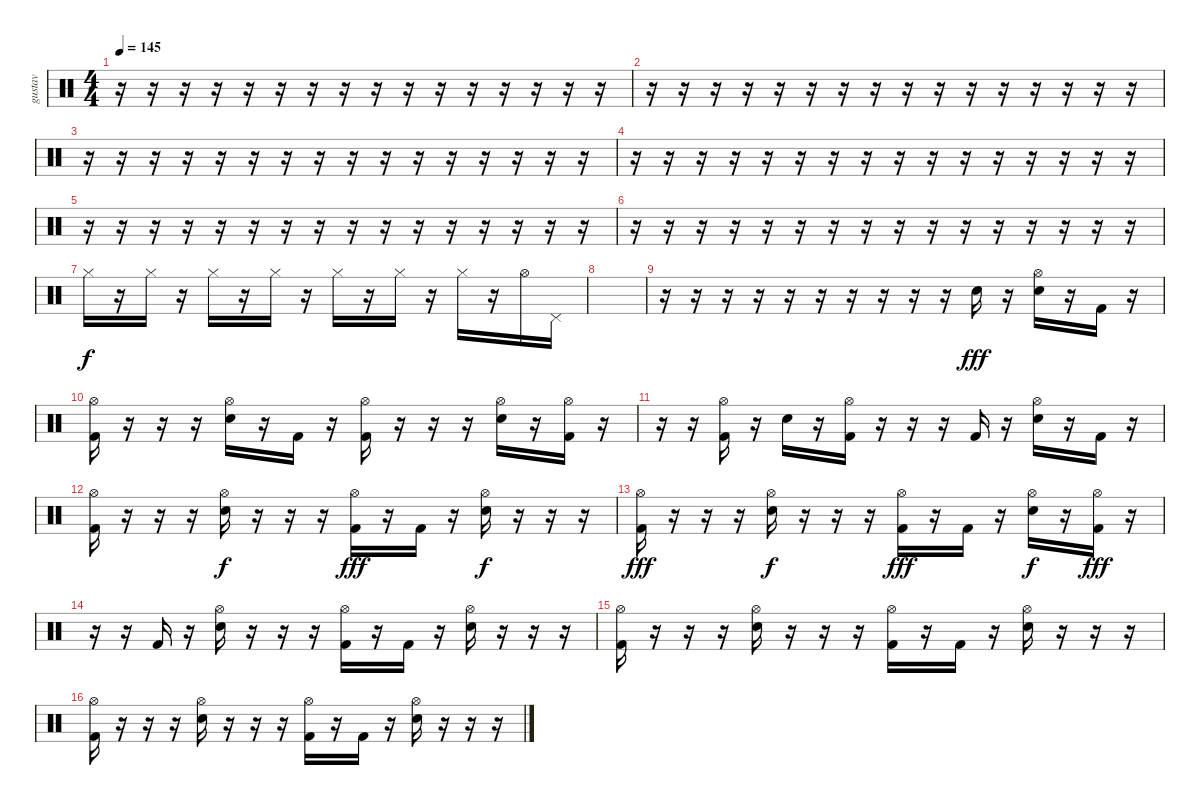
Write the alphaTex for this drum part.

\track ("gustav" "gustav") {instrument percussion}
\staff {score}
\articulation defaults
\ts (4 4)
\tempo 145
\clef neutral
\ks c
r.16{dy fff} r.16 r.16 r.16 r.16 r.16 r.16 r.16 r.16 r.16 r.16 r.16 r.16 r.16 r.16 r.16 |
r.16 r.16 r.16 r.16 r.16 r.16 r.16 r.16 r.16 r.16 r.16 r.16 r.16 r.16 r.16 r.16 |
r.16 r.16 r.16 r.16 r.16 r.16 r.16 r.16 r.16 r.16 r.16 r.16 r.16 r.16 r.16 r.16 |
r.16 r.16 r.16 r.16 r.16 r.16 r.16 r.16 r.16 r.16 r.16 r.16 r.16 r.16 r.16 r.16 |
r.16 r.16 r.16 r.16 r.16 r.16 r.16 r.16 r.16 r.16 r.16 r.16 r.16 r.16 r.16 r.16 |
r.16 r.16 r.16 r.16 r.16 r.16 r.16 r.16 r.16 r.16{volume 0} r.16 r.16 r.16 r.16 r.16{volume 16} r.16 |
"Hi-Hat (closed)".16{dy f} r.16 "Hi-Hat (closed)".16 r.16 "Hi-Hat (closed)".16 r.16 "Hi-Hat (closed)".16 r.16 "Hi-Hat (closed)".16 r.16 "Hi-Hat (closed)".16 r.16 "Hi-Hat (closed)".16 r.16 "Hi-Hat (open)".16 "Pedal Hi-Hat (hit)".16 |
|
r.16 r.16 r.16 r.16 r.16 r.16 r.16 r.16 r.16 r.16 "Electric Snare (hit)".16{dy fff volume 16} r.16 ("Hi-Hat (open)" "Electric Snare (hit)").16 r.16 "Kick (hit) 2".16 r.16 |
("Hi-Hat (open)" "Kick (hit) 2").16 r.16 r.16 r.16 ("Hi-Hat (open)" "Electric Snare (hit)").16 r.16 "Kick (hit) 2".16 r.16 ("Hi-Hat (open)" "Kick (hit) 2").16 r.16 r.16 r.16 ("Hi-Hat (open)" "Electric Snare (hit)").16 r.16 ("Hi-Hat (open)" "Kick (hit) 2").16 r.16 |
r.16 r.16 ("Hi-Hat (open)" "Kick (hit) 2").16 r.16 "Electric Snare (hit)".16 r.16 ("Hi-Hat (open)" "Kick (hit) 2").16 r.16 r.16 r.16 "Kick (hit) 2".16 r.16 ("Hi-Hat (open)" "Electric Snare (hit)").16 r.16 "Kick (hit) 2".16 r.16 |
("Hi-Hat (open)" "Kick (hit) 2").16 r.16 r.16 r.16 ("Hi-Hat (open)" "Electric Snare (hit)").16{dy f} r.16 r.16 r.16 ("Hi-Hat (open)" "Kick (hit) 2").16{dy fff} r.16 "Kick (hit) 2".16 r.16 ("Hi-Hat (open)" "Electric Snare (hit)").16{dy f} r.16 r.16 r.16 |
("Hi-Hat (open)" "Kick (hit) 2").16{dy fff} r.16 r.16 r.16 ("Hi-Hat (open)" "Electric Snare (hit)").16{dy f} r.16 r.16 r.16 ("Hi-Hat (open)" "Kick (hit) 2").16{dy fff} r.16 "Kick (hit) 2".16 r.16 ("Hi-Hat (open)" "Electric Snare (hit)").16{dy f} r.16 ("Hi-Hat (open)" "Kick (hit) 2").16{dy fff} r.16 |
r.16 r.16 "Kick (hit) 2".16 r.16 ("Hi-Hat (open)" "Electric Snare (hit)").16 r.16 r.16 r.16 ("Hi-Hat (open)" "Kick (hit) 2").16 r.16 "Kick (hit) 2".16 r.16 ("Hi-Hat (open)" "Electric Snare (hit)").16 r.16 r.16 r.16 |
("Hi-Hat (open)" "Kick (hit) 2").16 r.16 r.16 r.16 ("Hi-Hat (open)" "Electric Snare (hit)").16 r.16 r.16 r.16 ("Hi-Hat (open)" "Kick (hit) 2").16 r.16 "Kick (hit) 2".16 r.16 ("Hi-Hat (open)" "Electric Snare (hit)").16 r.16 r.16 r.16 |
("Hi-Hat (open)" "Kick (hit) 2").16 r.16 r.16 r.16 ("Hi-Hat (open)" "Electric Snare (hit)").16 r.16 r.16 r.16 ("Hi-Hat (open)" "Kick (hit) 2").16 r.16 "Kick (hit) 2".16 r.16 ("Hi-Hat (open)" "Electric Snare (hit)").16 r.16 r.16 r.16
